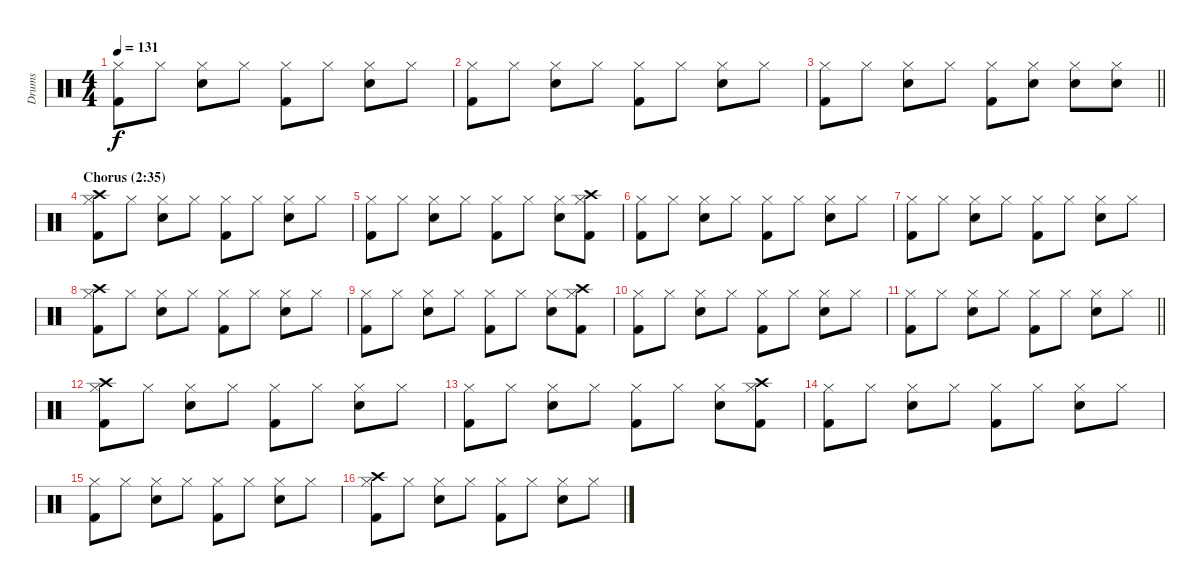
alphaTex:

\track ("Drums" "Drums") {instrument percussion}
\staff {score}
\articulation defaults
\ts (4 4)
\tempo 131
\clef neutral
\ks c
("Kick (hit) 2" "Hi-Hat (closed)").8{dy f} "Hi-Hat (closed)".8 ("Hi-Hat (closed)" "Snare (hit) 2").8 "Hi-Hat (closed)".8 ("Hi-Hat (closed)" "Kick (hit) 2").8 "Hi-Hat (closed)".8 ("Hi-Hat (closed)" "Snare (hit) 2").8 "Hi-Hat (closed)".8 |
("Kick (hit) 2" "Hi-Hat (closed)").8 "Hi-Hat (closed)".8 ("Hi-Hat (closed)" "Snare (hit) 2").8 "Hi-Hat (closed)".8 ("Hi-Hat (closed)" "Kick (hit) 2").8 "Hi-Hat (closed)".8 ("Hi-Hat (closed)" "Snare (hit) 2").8 "Hi-Hat (closed)".8 |
\barLineRight lightlight
("Kick (hit) 2" "Hi-Hat (closed)").8 "Hi-Hat (closed)".8 ("Hi-Hat (closed)" "Snare (hit) 2").8 "Hi-Hat (closed)".8 ("Hi-Hat (closed)" "Kick (hit) 2").8 ("Hi-Hat (closed)" "Snare (hit) 2").8 ("Hi-Hat (closed)" "Snare (hit) 2").8 ("Hi-Hat (closed)" "Snare (hit) 2").8 |
\section ("" "Chorus (2:35)")
("Kick (hit) 2" "Hi-Hat (closed)" "Crash high (hit)").8 "Hi-Hat (closed)".8 ("Hi-Hat (closed)" "Snare (hit) 2").8 "Hi-Hat (closed)".8 ("Hi-Hat (closed)" "Kick (hit) 2").8 "Hi-Hat (closed)".8 ("Hi-Hat (closed)" "Snare (hit) 2").8 "Hi-Hat (closed)".8 |
("Kick (hit) 2" "Hi-Hat (closed)").8 "Hi-Hat (closed)".8 ("Hi-Hat (closed)" "Snare (hit) 2").8 "Hi-Hat (closed)".8 ("Hi-Hat (closed)" "Kick (hit) 2").8 "Hi-Hat (closed)".8 ("Hi-Hat (closed)" "Snare (hit) 2").8 ("Hi-Hat (closed)" "Kick (hit) 2" "Crash high (hit)").8 |
("Kick (hit) 2" "Hi-Hat (closed)").8 "Hi-Hat (closed)".8 ("Hi-Hat (closed)" "Snare (hit) 2").8 "Hi-Hat (closed)".8 ("Hi-Hat (closed)" "Kick (hit) 2").8 "Hi-Hat (closed)".8 ("Hi-Hat (closed)" "Snare (hit) 2").8 "Hi-Hat (closed)".8 |
("Kick (hit) 2" "Hi-Hat (closed)").8 "Hi-Hat (closed)".8 ("Hi-Hat (closed)" "Snare (hit) 2").8 "Hi-Hat (closed)".8 ("Hi-Hat (closed)" "Kick (hit) 2").8 "Hi-Hat (closed)".8 ("Hi-Hat (closed)" "Snare (hit) 2").8 "Hi-Hat (closed)".8 |
("Kick (hit) 2" "Hi-Hat (closed)" "Crash high (hit)").8 "Hi-Hat (closed)".8 ("Hi-Hat (closed)" "Snare (hit) 2").8 "Hi-Hat (closed)".8 ("Hi-Hat (closed)" "Kick (hit) 2").8 "Hi-Hat (closed)".8 ("Hi-Hat (closed)" "Snare (hit) 2").8 "Hi-Hat (closed)".8 |
("Kick (hit) 2" "Hi-Hat (closed)").8 "Hi-Hat (closed)".8 ("Hi-Hat (closed)" "Snare (hit) 2").8 "Hi-Hat (closed)".8 ("Hi-Hat (closed)" "Kick (hit) 2").8 "Hi-Hat (closed)".8 ("Hi-Hat (closed)" "Snare (hit) 2").8 ("Hi-Hat (closed)" "Kick (hit) 2" "Crash high (hit)").8 |
("Kick (hit) 2" "Hi-Hat (closed)").8 "Hi-Hat (closed)".8 ("Hi-Hat (closed)" "Snare (hit) 2").8 "Hi-Hat (closed)".8 ("Hi-Hat (closed)" "Kick (hit) 2").8 "Hi-Hat (closed)".8 ("Hi-Hat (closed)" "Snare (hit) 2").8 "Hi-Hat (closed)".8 |
\barLineRight lightlight
("Kick (hit) 2" "Hi-Hat (closed)").8 "Hi-Hat (closed)".8 ("Hi-Hat (closed)" "Snare (hit) 2").8 "Hi-Hat (closed)".8 ("Hi-Hat (closed)" "Kick (hit) 2").8 "Hi-Hat (closed)".8 ("Hi-Hat (closed)" "Snare (hit) 2").8 "Hi-Hat (closed)".8 |
("Kick (hit) 2" "Hi-Hat (closed)" "Crash high (hit)").8 "Hi-Hat (closed)".8 ("Hi-Hat (closed)" "Snare (hit) 2").8 "Hi-Hat (closed)".8 ("Hi-Hat (closed)" "Kick (hit) 2").8 "Hi-Hat (closed)".8 ("Hi-Hat (closed)" "Snare (hit) 2").8 "Hi-Hat (closed)".8 |
("Kick (hit) 2" "Hi-Hat (closed)").8 "Hi-Hat (closed)".8 ("Hi-Hat (closed)" "Snare (hit) 2").8 "Hi-Hat (closed)".8 ("Hi-Hat (closed)" "Kick (hit) 2").8 "Hi-Hat (closed)".8 ("Hi-Hat (closed)" "Snare (hit) 2").8 ("Hi-Hat (closed)" "Kick (hit) 2" "Crash high (hit)").8 |
("Kick (hit) 2" "Hi-Hat (closed)").8 "Hi-Hat (closed)".8 ("Hi-Hat (closed)" "Snare (hit) 2").8 "Hi-Hat (closed)".8 ("Hi-Hat (closed)" "Kick (hit) 2").8 "Hi-Hat (closed)".8 ("Hi-Hat (closed)" "Snare (hit) 2").8 "Hi-Hat (closed)".8 |
("Kick (hit) 2" "Hi-Hat (closed)").8 "Hi-Hat (closed)".8 ("Hi-Hat (closed)" "Snare (hit) 2").8 "Hi-Hat (closed)".8 ("Hi-Hat (closed)" "Kick (hit) 2").8 "Hi-Hat (closed)".8 ("Hi-Hat (closed)" "Snare (hit) 2").8 "Hi-Hat (closed)".8 |
("Kick (hit) 2" "Hi-Hat (closed)" "Crash high (hit)").8 "Hi-Hat (closed)".8 ("Hi-Hat (closed)" "Snare (hit) 2").8 "Hi-Hat (closed)".8 ("Hi-Hat (closed)" "Kick (hit) 2").8 "Hi-Hat (closed)".8 ("Hi-Hat (closed)" "Snare (hit) 2").8 "Hi-Hat (closed)".8
